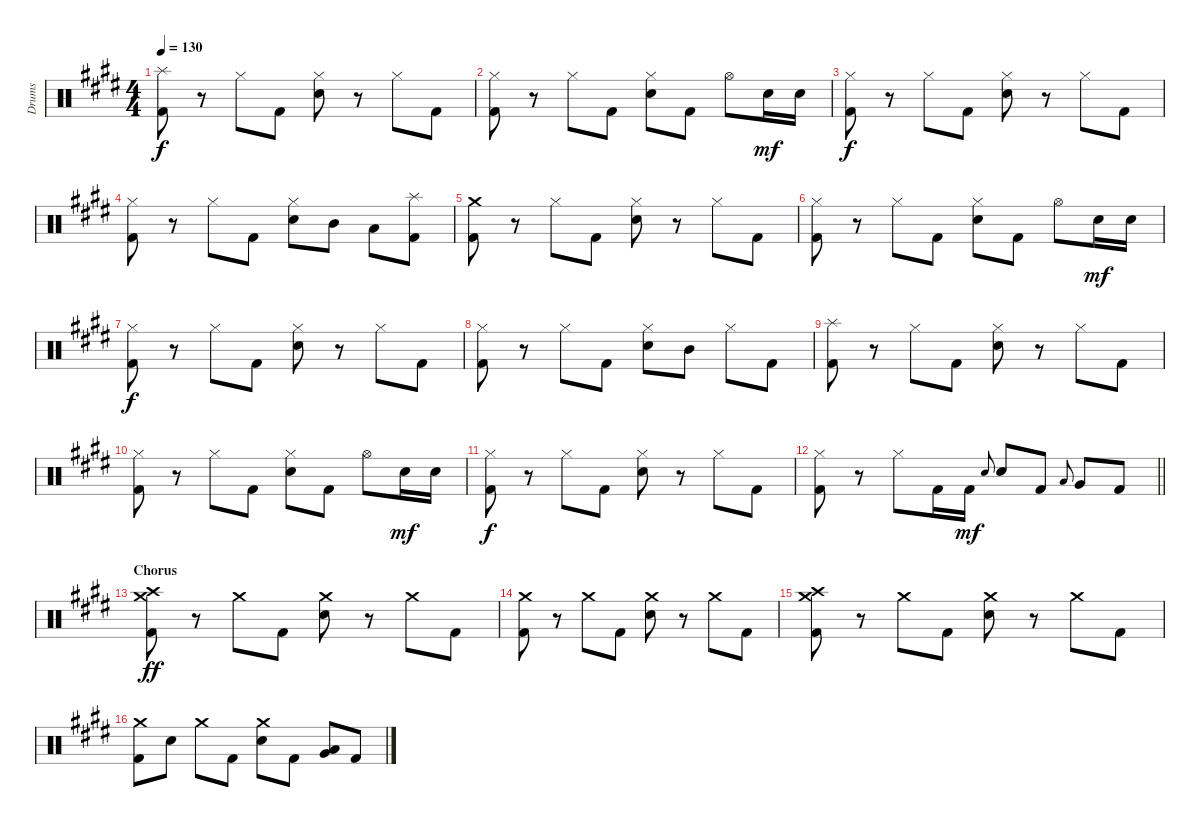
\track ("Drums" "Drums") {instrument percussion}
\staff {score}
\articulation defaults
\ts (4 4)
\tempo 130
\clef neutral
\ks c#minor
("Splash (hit)" "Kick (hit) 2").8{dy f} r.8 "Hi-Hat (closed)".8 "Kick (hit) 2".8 ("Hi-Hat (closed)" "Electric Snare (hit)").8 r.8 "Hi-Hat (closed)".8 "Kick (hit) 2".8 |
("Hi-Hat (closed)" "Kick (hit) 2").8 r.8 "Hi-Hat (closed)".8 "Kick (hit) 2".8 ("Hi-Hat (closed)" "Electric Snare (hit)").8 "Kick (hit) 2".8 "Hi-Hat (open)".8 "Electric Snare (hit)".16{dy mf} "Electric Snare (hit)".16 |
("Hi-Hat (closed)" "Kick (hit) 2").8{dy f} r.8 "Hi-Hat (closed)".8 "Kick (hit) 2".8 ("Hi-Hat (closed)" "Electric Snare (hit)").8 r.8 "Hi-Hat (closed)".8 "Kick (hit) 2".8 |
("Hi-Hat (closed)" "Kick (hit) 2").8 r.8 "Hi-Hat (closed)".8 "Kick (hit) 2".8 ("Hi-Hat (closed)" "Electric Snare (hit)").8 "Mid Tom (hit)".8 "Low Tom (hit)".8 ("Splash (hit)" "Kick (hit) 2").8 |
("Crash medium (hit)" "Kick (hit) 2").8 r.8 "Hi-Hat (closed)".8 "Kick (hit) 2".8 ("Hi-Hat (closed)" "Electric Snare (hit)").8 r.8 "Hi-Hat (closed)".8 "Kick (hit) 2".8 |
("Hi-Hat (closed)" "Kick (hit) 2").8 r.8 "Hi-Hat (closed)".8 "Kick (hit) 2".8 ("Hi-Hat (closed)" "Electric Snare (hit)").8 "Kick (hit) 2".8 "Hi-Hat (open)".8 "Electric Snare (hit)".16{dy mf} "Electric Snare (hit)".16 |
("Hi-Hat (closed)" "Kick (hit) 2").8{dy f} r.8 "Hi-Hat (closed)".8 "Kick (hit) 2".8 ("Hi-Hat (closed)" "Electric Snare (hit)").8 r.8 "Hi-Hat (closed)".8 "Kick (hit) 2".8 |
("Hi-Hat (closed)" "Kick (hit) 2").8 r.8 "Hi-Hat (closed)".8 "Kick (hit) 2".8 ("Hi-Hat (closed)" "Electric Snare (hit)").8 "Mid Tom (hit)".8 "Hi-Hat (closed)".8 "Kick (hit) 2".8 |
("Splash (hit)" "Kick (hit) 2").8 r.8 "Hi-Hat (closed)".8 "Kick (hit) 2".8 ("Hi-Hat (closed)" "Electric Snare (hit)").8 r.8 "Hi-Hat (closed)".8 "Kick (hit) 2".8 |
("Hi-Hat (closed)" "Kick (hit) 2").8 r.8 "Hi-Hat (closed)".8 "Kick (hit) 2".8 ("Hi-Hat (closed)" "Electric Snare (hit)").8 "Kick (hit) 2".8 "Hi-Hat (open)".8 "Electric Snare (hit)".16{dy mf} "Electric Snare (hit)".16 |
("Hi-Hat (closed)" "Kick (hit) 2").8{dy f} r.8 "Hi-Hat (closed)".8 "Kick (hit) 2".8 ("Hi-Hat (closed)" "Electric Snare (hit)").8 r.8 "Hi-Hat (closed)".8 "Kick (hit) 2".8 |
\barLineRight lightlight
("Hi-Hat (closed)" "Kick (hit) 2").8 r.8 "Hi-Hat (closed)".8 "Kick (hit) 2".16 "Kick (hit) 2".16{dy mf} "Electric Snare (hit)".8{gr onbeat} "Electric Snare (hit)".8 "Kick (hit) 2".8 "Low Floor Tom (hit)".8{gr onbeat} "Very Low Tom (hit)".8 "Kick (hit) 2".8 |
\section ("" "Chorus")
("Crash medium (hit)" "Crash high (hit)" "Kick (hit) 2").8{dy ff} r.8 "Crash medium (hit)".8 "Kick (hit) 2".8 ("Crash medium (hit)" "Electric Snare (hit)").8 r.8 "Crash medium (hit)".8 "Kick (hit) 2".8 |
("Crash medium (hit)" "Kick (hit) 2").8 r.8 "Crash medium (hit)".8 "Kick (hit) 2".8 ("Crash medium (hit)" "Electric Snare (hit)").8 r.8 "Crash medium (hit)".8 "Kick (hit) 2".8 |
("Crash medium (hit)" "Crash high (hit)" "Kick (hit) 2").8 r.8 "Crash medium (hit)".8 "Kick (hit) 2".8 ("Crash medium (hit)" "Electric Snare (hit)").8 r.8 "Crash medium (hit)".8 "Kick (hit) 2".8 |
("Crash medium (hit)" "Kick (hit) 2").8 "Electric Snare (hit)".8 "Crash medium (hit)".8 "Kick (hit) 2".8 ("Crash medium (hit)" "Electric Snare (hit)").8 "Kick (hit) 2".8 ("Very Low Tom (hit)" "Low Floor Tom (hit)").8 "Kick (hit) 2".8
